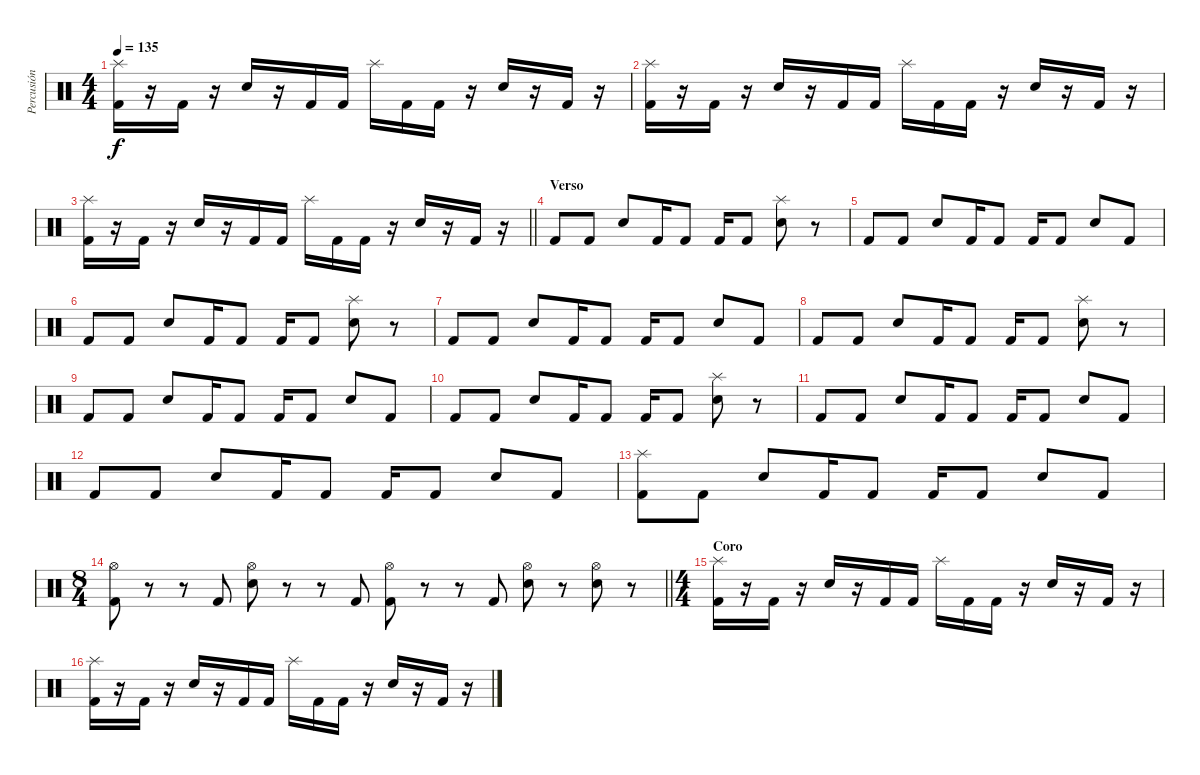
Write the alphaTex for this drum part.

\track ("Percusión" "Percusión") {instrument percussion}
\staff {score}
\articulation defaults
\ts (4 4)
\tempo 135
\clef neutral
\ks c
("Splash (hit)" "Kick (hit) 2").16{dy f} r.16 "Kick (hit) 2".16 r.16 "Electric Snare (hit)".16 r.16 "Kick (hit) 2".16 "Kick (hit) 2".16 "Splash (hit)".16 "Kick (hit) 2".16 "Kick (hit) 2".16 r.16 "Electric Snare (hit)".16 r.16 "Kick (hit) 2".16 r.16 |
("Splash (hit)" "Kick (hit) 2").16 r.16 "Kick (hit) 2".16 r.16 "Electric Snare (hit)".16 r.16 "Kick (hit) 2".16 "Kick (hit) 2".16 "Splash (hit)".16 "Kick (hit) 2".16 "Kick (hit) 2".16 r.16 "Electric Snare (hit)".16 r.16 "Kick (hit) 2".16 r.16 |
\barLineRight lightlight
("Splash (hit)" "Kick (hit) 2").16 r.16 "Kick (hit) 2".16 r.16 "Electric Snare (hit)".16 r.16 "Kick (hit) 2".16 "Kick (hit) 2".16 "Splash (hit)".16 "Kick (hit) 2".16 "Kick (hit) 2".16 r.16 "Electric Snare (hit)".16 r.16 "Kick (hit) 2".16 r.16 |
\section ("" "Verso")
"Kick (hit) 2".8 "Kick (hit) 2".8 "Electric Snare (hit)".8 "Kick (hit) 2".16 "Kick (hit) 2".8 "Kick (hit) 2".16 "Kick (hit) 2".8 ("Splash (hit)" "Electric Snare (hit)").8 r.8 |
"Kick (hit) 2".8 "Kick (hit) 2".8 "Electric Snare (hit)".8 "Kick (hit) 2".16 "Kick (hit) 2".8 "Kick (hit) 2".16 "Kick (hit) 2".8 "Electric Snare (hit)".8 "Kick (hit) 2".8 |
"Kick (hit) 2".8 "Kick (hit) 2".8 "Electric Snare (hit)".8 "Kick (hit) 2".16 "Kick (hit) 2".8 "Kick (hit) 2".16 "Kick (hit) 2".8 ("Splash (hit)" "Electric Snare (hit)").8 r.8 |
"Kick (hit) 2".8 "Kick (hit) 2".8 "Electric Snare (hit)".8 "Kick (hit) 2".16 "Kick (hit) 2".8 "Kick (hit) 2".16 "Kick (hit) 2".8 "Electric Snare (hit)".8 "Kick (hit) 2".8 |
"Kick (hit) 2".8 "Kick (hit) 2".8 "Electric Snare (hit)".8 "Kick (hit) 2".16 "Kick (hit) 2".8 "Kick (hit) 2".16 "Kick (hit) 2".8 ("Splash (hit)" "Electric Snare (hit)").8 r.8 |
"Kick (hit) 2".8 "Kick (hit) 2".8 "Electric Snare (hit)".8 "Kick (hit) 2".16 "Kick (hit) 2".8 "Kick (hit) 2".16 "Kick (hit) 2".8 "Electric Snare (hit)".8 "Kick (hit) 2".8 |
"Kick (hit) 2".8 "Kick (hit) 2".8 "Electric Snare (hit)".8 "Kick (hit) 2".16 "Kick (hit) 2".8 "Kick (hit) 2".16 "Kick (hit) 2".8 ("Splash (hit)" "Electric Snare (hit)").8 r.8 |
"Kick (hit) 2".8 "Kick (hit) 2".8 "Electric Snare (hit)".8 "Kick (hit) 2".16 "Kick (hit) 2".8 "Kick (hit) 2".16 "Kick (hit) 2".8 "Electric Snare (hit)".8 "Kick (hit) 2".8 |
"Kick (hit) 2".8 "Kick (hit) 2".8 "Electric Snare (hit)".8 "Kick (hit) 2".16 "Kick (hit) 2".8 "Kick (hit) 2".16 "Kick (hit) 2".8 "Electric Snare (hit)".8 "Kick (hit) 2".8 |
("Splash (hit)" "Kick (hit) 2").8 "Kick (hit) 2".8 "Electric Snare (hit)".8 "Kick (hit) 2".16 "Kick (hit) 2".8 "Kick (hit) 2".16 "Kick (hit) 2".8 "Electric Snare (hit)".8 "Kick (hit) 2".8 |
\ts (8 4)
\barLineRight lightlight
("Hi-Hat (open)" "Kick (hit) 2").8 r.8 r.8 "Kick (hit) 2".8 ("Hi-Hat (open)" "Electric Snare (hit)").8 r.8 r.8 "Kick (hit) 2".8 ("Hi-Hat (open)" "Kick (hit) 2").8 r.8 r.8 "Kick (hit) 2".8 ("Hi-Hat (open)" "Electric Snare (hit)").8 r.8 ("Hi-Hat (open)" "Electric Snare (hit)").8 r.8 |
\ts (4 4)
\section ("" "Coro")
("Splash (hit)" "Kick (hit) 2").16 r.16 "Kick (hit) 2".16 r.16 "Electric Snare (hit)".16 r.16 "Kick (hit) 2".16 "Kick (hit) 2".16 "Splash (hit)".16 "Kick (hit) 2".16 "Kick (hit) 2".16 r.16 "Electric Snare (hit)".16 r.16 "Kick (hit) 2".16 r.16 |
("Splash (hit)" "Kick (hit) 2").16 r.16 "Kick (hit) 2".16 r.16 "Electric Snare (hit)".16 r.16 "Kick (hit) 2".16 "Kick (hit) 2".16 "Splash (hit)".16 "Kick (hit) 2".16 "Kick (hit) 2".16 r.16 "Electric Snare (hit)".16 r.16 "Kick (hit) 2".16 r.16
